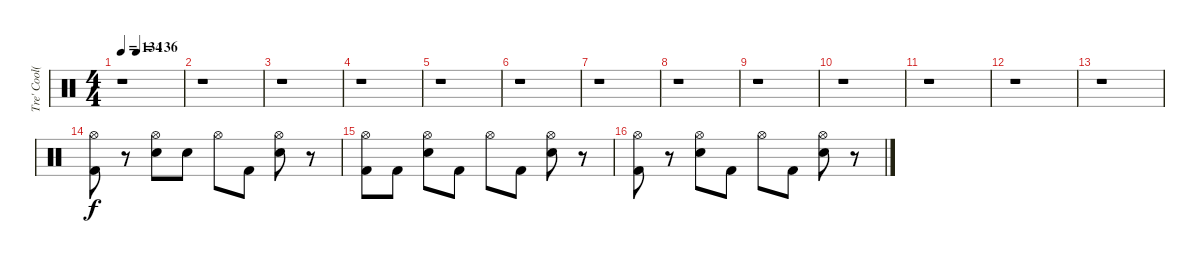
\track ("Tre' Cool(Drums)" "Tre' Cool(") {instrument percussion}
\staff {score}
\articulation defaults
\ts (4 4)
\tempo 134
\tempo (136 0.25)
\clef neutral
\ks c
r.1{dy f} |
r.1 |
r.1 |
r.1 |
r.1 |
r.1 |
r.1 |
r.1 |
r.1 |
r.1 |
r.1 |
r.1 |
r.1 |
("Kick (hit) 2" "Hi-Hat (open)").8 r.8 ("Electric Snare (hit)" "Hi-Hat (open)").8 "Electric Snare (hit)".8 "Hi-Hat (open)".8 "Kick (hit) 2".8 ("Electric Snare (hit)" "Hi-Hat (open)").8 r.8 |
("Kick (hit) 2" "Hi-Hat (open)").8 "Kick (hit) 2".8 ("Electric Snare (hit)" "Hi-Hat (open)").8 "Kick (hit) 2".8 "Hi-Hat (open)".8 "Kick (hit) 2".8 ("Electric Snare (hit)" "Hi-Hat (open)").8 r.8 |
("Kick (hit) 2" "Hi-Hat (open)").8 r.8 ("Electric Snare (hit)" "Hi-Hat (open)").8 "Kick (hit) 2".8 "Hi-Hat (open)".8 "Kick (hit) 2".8 ("Electric Snare (hit)" "Hi-Hat (open)").8 r.8
